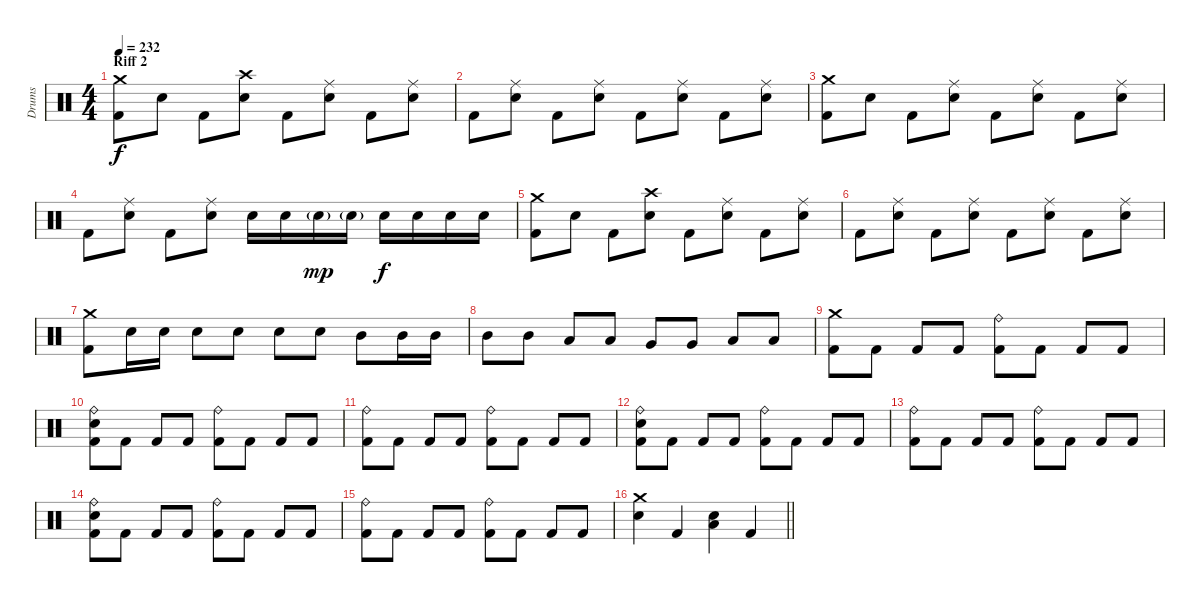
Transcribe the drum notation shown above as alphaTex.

\track ("Drums" "Drums") {instrument percussion}
\staff {score}
\articulation defaults
\ts (4 4)
\section ("" "Riff 2")
\tempo 232
\clef neutral
\ks c
("Kick (hit) 2" "Crash medium (hit)").8{dy f} "Electric Snare (hit)".8 "Kick (hit) 2".8 ("Crash high (hit)" "Electric Snare (hit)").8 "Kick (hit) 2".8 ("Electric Snare (hit)" "Ride (middle)").8 "Kick (hit) 2".8 ("Electric Snare (hit)" "Ride (middle)").8 |
"Kick (hit) 2".8 ("Electric Snare (hit)" "Ride (middle)").8 "Kick (hit) 2".8 ("Electric Snare (hit)" "Ride (middle)").8 "Kick (hit) 2".8 ("Electric Snare (hit)" "Ride (middle)").8 "Kick (hit) 2".8 ("Electric Snare (hit)" "Ride (middle)").8 |
("Kick (hit) 2" "Crash medium (hit)").8 "Electric Snare (hit)".8 "Kick (hit) 2".8 ("Electric Snare (hit)" "Ride (middle)").8 "Kick (hit) 2".8 ("Electric Snare (hit)" "Ride (middle)").8 "Kick (hit) 2".8 ("Electric Snare (hit)" "Ride (middle)").8 |
"Kick (hit) 2".8 ("Electric Snare (hit)" "Ride (middle)").8 "Kick (hit) 2".8 ("Electric Snare (hit)" "Ride (middle)").8 "Electric Snare (hit)".16 "Electric Snare (hit)".16 "Electric Snare (hit)"{g}.16{dy mp} "Electric Snare (hit)"{g}.16 "Electric Snare (hit)".16{dy f} "Electric Snare (hit)".16 "Electric Snare (hit)".16 "Electric Snare (hit)".16 |
("Kick (hit) 2" "Crash medium (hit)").8 "Electric Snare (hit)".8 "Kick (hit) 2".8 ("Crash high (hit)" "Electric Snare (hit)").8 "Kick (hit) 2".8 ("Electric Snare (hit)" "Ride (middle)").8 "Kick (hit) 2".8 ("Electric Snare (hit)" "Ride (middle)").8 |
"Kick (hit) 2".8 ("Electric Snare (hit)" "Ride (middle)").8 "Kick (hit) 2".8 ("Electric Snare (hit)" "Ride (middle)").8 "Kick (hit) 2".8 ("Electric Snare (hit)" "Ride (middle)").8 "Kick (hit) 2".8 ("Electric Snare (hit)" "Ride (middle)").8 |
("Kick (hit) 2" "Crash medium (hit)").8 "Electric Snare (hit)".16 "Electric Snare (hit)".16 "Electric Snare (hit)".8 "Electric Snare (hit)".8 "Electric Snare (hit)".8 "Electric Snare (hit)".8 "Mid Tom (hit)".8 "Mid Tom (hit)".16 "Mid Tom (hit)".16 |
"Mid Tom (hit)".8 "Mid Tom (hit)".8 "Low Tom (hit)".8 "Low Tom (hit)".8 "Very Low Tom (hit)".8 "Very Low Tom (hit)".8 "Low Floor Tom (hit)".8 "Low Floor Tom (hit)".8 |
("Crash medium (hit)" "Kick (hit) 2").8 "Kick (hit) 2".8 "Kick (hit) 2".8 "Kick (hit) 2".8 ("Ride (bell)" "Kick (hit) 2").8 "Kick (hit) 2".8 "Kick (hit) 2".8 "Kick (hit) 2".8 |
("Ride (bell)" "Electric Snare (hit)" "Kick (hit) 2").8 "Kick (hit) 2".8 "Kick (hit) 2".8 "Kick (hit) 2".8 ("Ride (bell)" "Kick (hit) 2").8 "Kick (hit) 2".8 "Kick (hit) 2".8 "Kick (hit) 2".8 |
("Ride (bell)" "Kick (hit) 2").8 "Kick (hit) 2".8 "Kick (hit) 2".8 "Kick (hit) 2".8 ("Ride (bell)" "Kick (hit) 2").8 "Kick (hit) 2".8 "Kick (hit) 2".8 "Kick (hit) 2".8 |
("Ride (bell)" "Electric Snare (hit)" "Kick (hit) 2").8 "Kick (hit) 2".8 "Kick (hit) 2".8 "Kick (hit) 2".8 ("Ride (bell)" "Kick (hit) 2").8 "Kick (hit) 2".8 "Kick (hit) 2".8 "Kick (hit) 2".8 |
("Ride (bell)" "Kick (hit) 2").8 "Kick (hit) 2".8 "Kick (hit) 2".8 "Kick (hit) 2".8 ("Ride (bell)" "Kick (hit) 2").8 "Kick (hit) 2".8 "Kick (hit) 2".8 "Kick (hit) 2".8 |
("Ride (bell)" "Electric Snare (hit)" "Kick (hit) 2").8 "Kick (hit) 2".8 "Kick (hit) 2".8 "Kick (hit) 2".8 ("Ride (bell)" "Kick (hit) 2").8 "Kick (hit) 2".8 "Kick (hit) 2".8 "Kick (hit) 2".8 |
("Ride (bell)" "Kick (hit) 2").8 "Kick (hit) 2".8 "Kick (hit) 2".8 "Kick (hit) 2".8 ("Ride (bell)" "Kick (hit) 2").8 "Kick (hit) 2".8 "Kick (hit) 2".8 "Kick (hit) 2".8 |
\barLineRight lightlight
("Electric Snare (hit)" "Crash medium (hit)").4 "Kick (hit) 2".4 ("Electric Snare (hit)" "Low Floor Tom (hit)").4 "Kick (hit) 2".4
